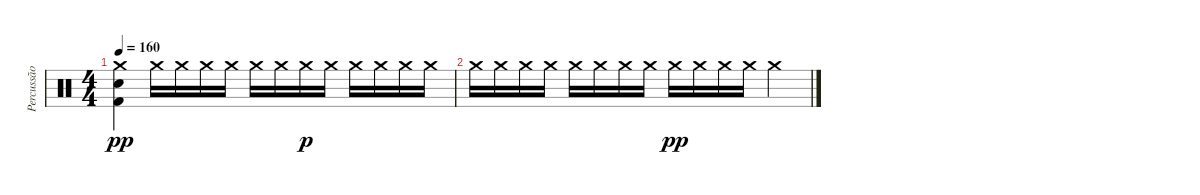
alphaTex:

\track ("Percussão" "Percussão") {instrument percussion}
\staff {score}
\articulation defaults
\ts (4 4)
\tempo 160
\clef neutral
\ks c
("Crash medium (hit)" "Snare (hit)" "Kick (hit) 2").4{dy pp} "Crash medium (hit)".16 "Crash medium (hit)".16 "Crash medium (hit)".16 "Crash medium (hit)".16 "Crash medium (hit)".16 "Crash medium (hit)".16 "Crash medium (hit)".16{dy p} "Crash medium (hit)".16 "Crash medium (hit)".16 "Crash medium (hit)".16 "Crash medium (hit)".16 "Crash medium (hit)".16 |
"Crash medium (hit)".16 "Crash medium (hit)".16 "Crash medium (hit)".16 "Crash medium (hit)".16 "Crash medium (hit)".16 "Crash medium (hit)".16 "Crash medium (hit)".16 "Crash medium (hit)".16 "Crash medium (hit)".16{dy pp} "Crash medium (hit)".16 "Crash medium (hit)".16 "Crash medium (hit)".16 "Crash medium (hit)".4
